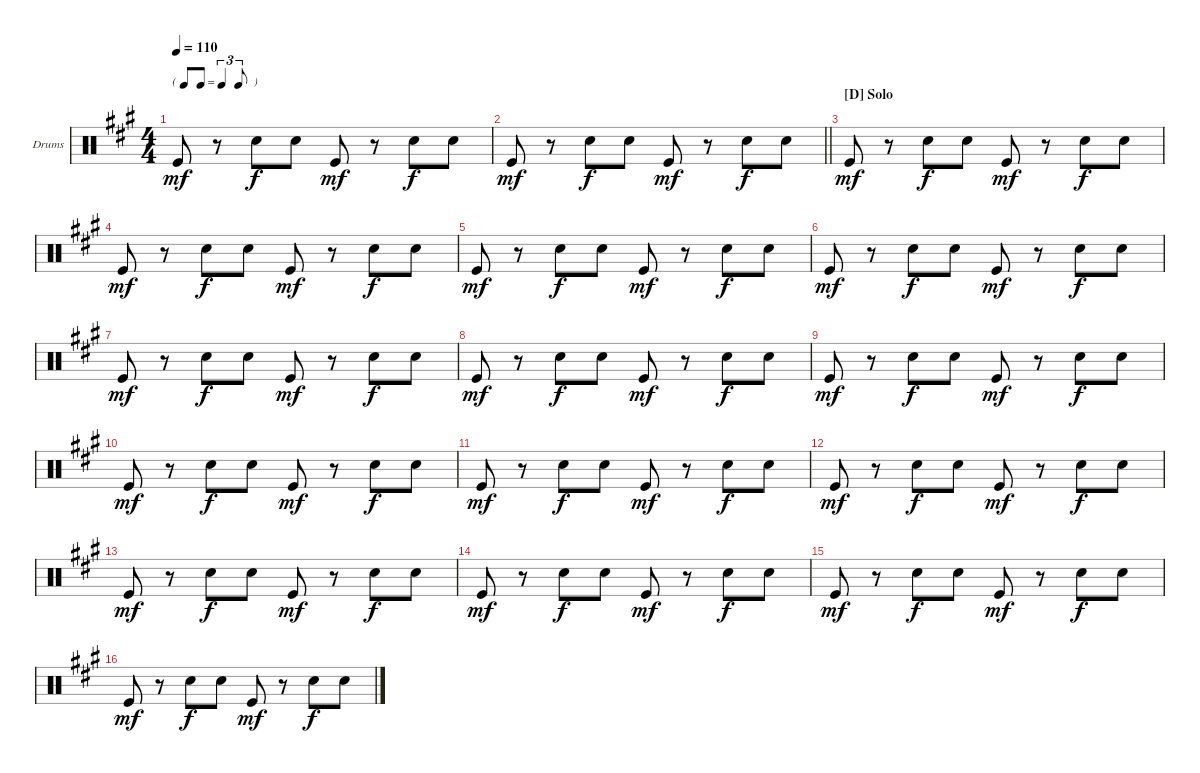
\defaultSystemsLayout 4
\bracketExtendMode groupsimilarinstruments
\firstSystemTrackNameOrientation horizontal
\otherSystemsTrackNameOrientation horizontal
\track ("Drumkit" "Drums") {instrument percussion}
\staff {score}
\articulation defaults
\ts (4 4)
\tf triplet8th
\tempo 110
\clef neutral
\scale
0.333333
\ks a "Kick (hit)".8{dy mf}
r.8 "Snare (hit) 2".8{dy f} "Snare (hit) 2".8 "Kick (hit)".8{dy mf} r.8 "Snare (hit) 2".8{dy f} "Snare (hit) 2".8 |
\scale
0.333333
\barLineRight lightlight "Kick (hit)".8{dy mf}
r.8 "Snare (hit) 2".8{dy f} "Snare (hit) 2".8 "Kick (hit)".8{dy mf} r.8 "Snare (hit) 2".8{dy f} "Snare (hit) 2".8 |
\section ("D" "Solo")
\scale
0.333333 "Kick (hit)".8{dy mf} r.8 "Snare (hit) 2".8{dy f} "Snare (hit) 2".8 "Kick (hit)".8{dy mf} r.8 "Snare (hit) 2".8{dy f} "Snare (hit) 2".8 |
\scale
0.333333 "Kick (hit)".8{dy mf} r.8 "Snare (hit) 2".8{dy f} "Snare (hit) 2".8 "Kick (hit)".8{dy mf} r.8 "Snare (hit) 2".8{dy f} "Snare (hit) 2".8 |
\scale
0.333333 "Kick (hit)".8{dy mf} r.8 "Snare (hit) 2".8{dy f} "Snare (hit) 2".8 "Kick (hit)".8{dy mf} r.8 "Snare (hit) 2".8{dy f} "Snare (hit) 2".8 |
\scale
0.333333 "Kick (hit)".8{dy mf} r.8 "Snare (hit) 2".8{dy f} "Snare (hit) 2".8 "Kick (hit)".8{dy mf} r.8 "Snare (hit) 2".8{dy f} "Snare (hit) 2".8 |
\scale
0.333333 "Kick (hit)".8{dy mf} r.8 "Snare (hit) 2".8{dy f} "Snare (hit) 2".8 "Kick (hit)".8{dy mf} r.8 "Snare (hit) 2".8{dy f} "Snare (hit) 2".8 |
\scale
0.333333 "Kick (hit)".8{dy mf} r.8 "Snare (hit) 2".8{dy f} "Snare (hit) 2".8 "Kick (hit)".8{dy mf} r.8 "Snare (hit) 2".8{dy f} "Snare (hit) 2".8 |
\scale
0.333333 "Kick (hit)".8{dy mf} r.8 "Snare (hit) 2".8{dy f} "Snare (hit) 2".8 "Kick (hit)".8{dy mf} r.8 "Snare (hit) 2".8{dy f} "Snare (hit) 2".8 |
\scale
0.333333 "Kick (hit)".8{dy mf} r.8 "Snare (hit) 2".8{dy f} "Snare (hit) 2".8 "Kick (hit)".8{dy mf} r.8 "Snare (hit) 2".8{dy f} "Snare (hit) 2".8 |
\scale
0.333333 "Kick (hit)".8{dy mf} r.8 "Snare (hit) 2".8{dy f} "Snare (hit) 2".8 "Kick (hit)".8{dy mf} r.8 "Snare (hit) 2".8{dy f} "Snare (hit) 2".8 |
\scale
0.333333 "Kick (hit)".8{dy mf} r.8 "Snare (hit) 2".8{dy f} "Snare (hit) 2".8 "Kick (hit)".8{dy mf} r.8 "Snare (hit) 2".8{dy f} "Snare (hit) 2".8 |
\scale
0.333333 "Kick (hit)".8{dy mf} r.8 "Snare (hit) 2".8{dy f} "Snare (hit) 2".8 "Kick (hit)".8{dy mf} r.8 "Snare (hit) 2".8{dy f} "Snare (hit) 2".8 |
\scale
0.333333 "Kick (hit)".8{dy mf} r.8 "Snare (hit) 2".8{dy f} "Snare (hit) 2".8 "Kick (hit)".8{dy mf} r.8 "Snare (hit) 2".8{dy f} "Snare (hit) 2".8 |
\scale
0.333333 "Kick (hit)".8{dy mf} r.8 "Snare (hit) 2".8{dy f} "Snare (hit) 2".8 "Kick (hit)".8{dy mf} r.8 "Snare (hit) 2".8{dy f} "Snare (hit) 2".8 |
\scale
0.333333 "Kick (hit)".8{dy mf} r.8 "Snare (hit) 2".8{dy f} "Snare (hit) 2".8 "Kick (hit)".8{dy mf} r.8 "Snare (hit) 2".8{dy f} "Snare (hit) 2".8
